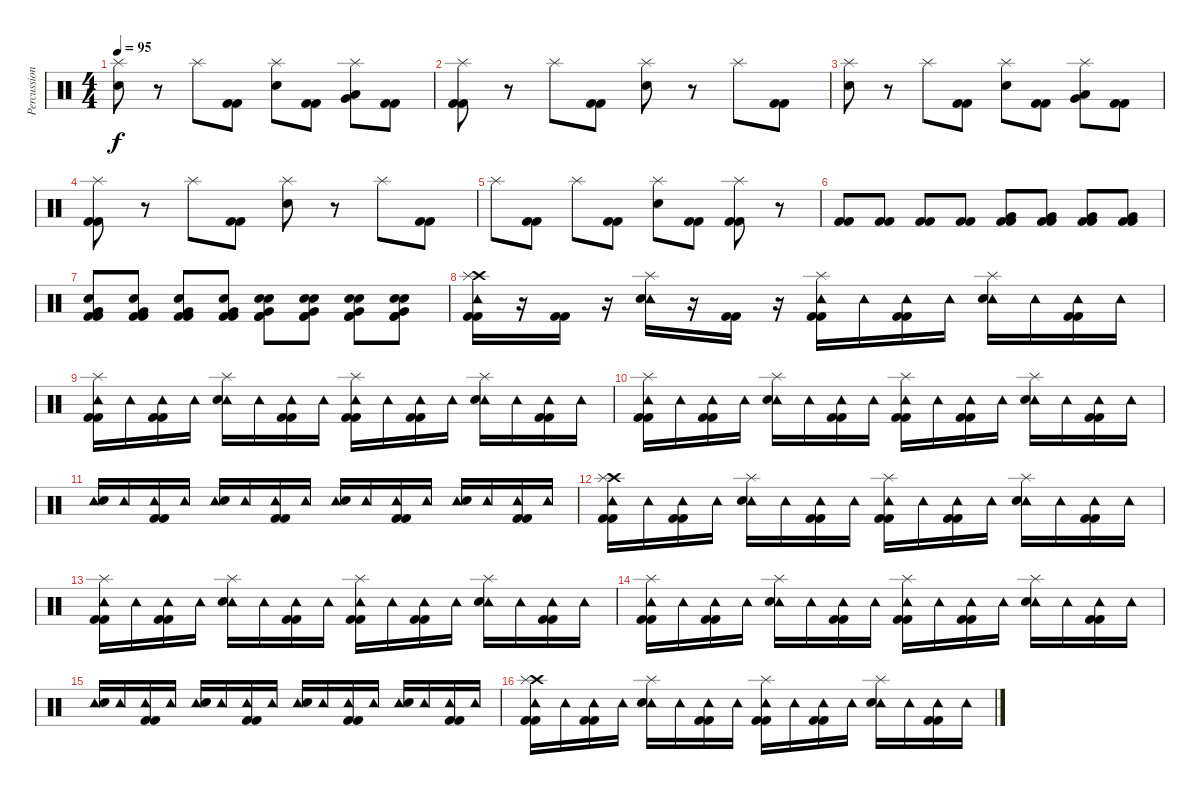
\track ("Percussion" "Percussion") {instrument percussion}
\staff {score}
\articulation defaults
\ts (4 4)
\tempo 95
\clef neutral
\ks c
("Splash (hit)" "Electric Snare (hit)").8{dy f} r.8 "Splash (hit)".8 ("Kick (hit) 2" "Kick (hit) 2").8 ("Splash (hit)" "Electric Snare (hit)").8 ("Kick (hit) 2" "Kick (hit) 2").8 ("Splash (hit)" "Very Low Tom (hit)" "Low Tom (hit)").8 ("Kick (hit) 2" "Kick (hit) 2").8 |
("Splash (hit)" "Kick (hit) 2" "Kick (hit) 2").8 r.8 "Splash (hit)".8 ("Kick (hit) 2" "Kick (hit) 2").8 ("Splash (hit)" "Electric Snare (hit)").8 r.8 "Splash (hit)".8 ("Kick (hit) 2" "Kick (hit) 2").8 |
("Splash (hit)" "Electric Snare (hit)").8 r.8 "Splash (hit)".8 ("Kick (hit) 2" "Kick (hit) 2").8 ("Splash (hit)" "Electric Snare (hit)").8 ("Kick (hit) 2" "Kick (hit) 2").8 ("Splash (hit)" "Very Low Tom (hit)" "Low Tom (hit)").8 ("Kick (hit) 2" "Kick (hit) 2").8 |
("Splash (hit)" "Kick (hit) 2" "Kick (hit) 2").8 r.8 "Splash (hit)".8 ("Kick (hit) 2" "Kick (hit) 2").8 ("Splash (hit)" "Electric Snare (hit)").8 r.8 "Splash (hit)".8 ("Kick (hit) 2" "Kick (hit) 2").8 |
"Splash (hit)".8 ("Kick (hit) 2" "Kick (hit) 2").8 "Splash (hit)".8 ("Kick (hit) 2" "Kick (hit) 2").8 ("Splash (hit)" "Electric Snare (hit)").8 ("Kick (hit) 2" "Kick (hit) 2").8 ("Splash (hit)" "Kick (hit) 2" "Kick (hit) 2").8 r.8 |
("Kick (hit) 2" "Kick (hit) 2").8 ("Kick (hit) 2" "Kick (hit) 2").8 ("Kick (hit) 2" "Kick (hit) 2").8 ("Kick (hit) 2" "Kick (hit) 2").8 ("Kick (hit) 2" "Kick (hit) 2" "Very Low Tom (hit)").8 ("Kick (hit) 2" "Kick (hit) 2" "Very Low Tom (hit)").8 ("Kick (hit) 2" "Kick (hit) 2" "Very Low Tom (hit)").8 ("Kick (hit) 2" "Kick (hit) 2" "Very Low Tom (hit)").8 |
("Electric Snare (hit)" "Kick (hit) 2" "Kick (hit) 2" "Very Low Tom (hit)").8 ("Electric Snare (hit)" "Kick (hit) 2" "Kick (hit) 2" "Very Low Tom (hit)").8 ("Electric Snare (hit)" "Kick (hit) 2" "Kick (hit) 2" "Very Low Tom (hit)").8 ("Electric Snare (hit)" "Kick (hit) 2" "Kick (hit) 2" "Very Low Tom (hit)").8 ("Snare (hit) 2" "Electric Snare (hit)" "Kick (hit) 2" "Kick (hit) 2" "Very Low Tom (hit)").8 ("Snare (hit) 2" "Electric Snare (hit)" "Kick (hit) 2" "Kick (hit) 2" "Very Low Tom (hit)").8 ("Snare (hit) 2" "Electric Snare (hit)" "Kick (hit) 2" "Kick (hit) 2" "Very Low Tom (hit)").8 ("Snare (hit) 2" "Electric Snare (hit)" "Kick (hit) 2" "Kick (hit) 2" "Very Low Tom (hit)").8 |
("Tambourine (hit)" "Crash high (hit)" "Kick (hit) 2" "Kick (hit) 2" "Splash (hit)").16 r.16 ("Kick (hit) 2" "Kick (hit) 2").16 r.16 ("Tambourine (hit)" "Electric Snare (hit)" "Splash (hit)").16 r.16 ("Kick (hit) 2" "Kick (hit) 2").16 r.16 ("Tambourine (hit)" "Kick (hit) 2" "Kick (hit) 2" "Splash (hit)").16 "Tambourine (hit)".16 ("Tambourine (hit)" "Kick (hit) 2" "Kick (hit) 2").16 "Tambourine (hit)".16 ("Tambourine (hit)" "Electric Snare (hit)" "Splash (hit)").16 "Tambourine (hit)".16 ("Tambourine (hit)" "Kick (hit) 2" "Kick (hit) 2").16 "Tambourine (hit)".16 |
("Tambourine (hit)" "Kick (hit) 2" "Kick (hit) 2" "Splash (hit)").16 "Tambourine (hit)".16 ("Tambourine (hit)" "Kick (hit) 2" "Kick (hit) 2").16 "Tambourine (hit)".16 ("Tambourine (hit)" "Electric Snare (hit)" "Splash (hit)").16 "Tambourine (hit)".16 ("Tambourine (hit)" "Kick (hit) 2" "Kick (hit) 2").16 "Tambourine (hit)".16 ("Tambourine (hit)" "Kick (hit) 2" "Kick (hit) 2" "Splash (hit)").16 "Tambourine (hit)".16 ("Tambourine (hit)" "Kick (hit) 2" "Kick (hit) 2").16 "Tambourine (hit)".16 ("Tambourine (hit)" "Electric Snare (hit)" "Splash (hit)").16 "Tambourine (hit)".16 ("Tambourine (hit)" "Kick (hit) 2" "Kick (hit) 2").16 "Tambourine (hit)".16 |
("Tambourine (hit)" "Kick (hit) 2" "Kick (hit) 2" "Splash (hit)").16 "Tambourine (hit)".16 ("Tambourine (hit)" "Kick (hit) 2" "Kick (hit) 2").16 "Tambourine (hit)".16 ("Tambourine (hit)" "Electric Snare (hit)" "Splash (hit)").16 "Tambourine (hit)".16 ("Tambourine (hit)" "Kick (hit) 2" "Kick (hit) 2").16 "Tambourine (hit)".16 ("Tambourine (hit)" "Kick (hit) 2" "Kick (hit) 2" "Splash (hit)").16 "Tambourine (hit)".16 ("Tambourine (hit)" "Kick (hit) 2" "Kick (hit) 2").16 "Tambourine (hit)".16 ("Tambourine (hit)" "Electric Snare (hit)" "Splash (hit)").16 "Tambourine (hit)".16 ("Tambourine (hit)" "Kick (hit) 2" "Kick (hit) 2").16 "Tambourine (hit)".16 |
("Tambourine (hit)" "Electric Snare (hit)").16 "Tambourine (hit)".16 ("Tambourine (hit)" "Kick (hit) 2" "Kick (hit) 2").16 "Tambourine (hit)".16 ("Tambourine (hit)" "Electric Snare (hit)").16 "Tambourine (hit)".16 ("Tambourine (hit)" "Kick (hit) 2" "Kick (hit) 2").16 "Tambourine (hit)".16 ("Tambourine (hit)" "Electric Snare (hit)").16 "Tambourine (hit)".16 ("Tambourine (hit)" "Kick (hit) 2" "Kick (hit) 2").16 "Tambourine (hit)".16 ("Tambourine (hit)" "Electric Snare (hit)").16 "Tambourine (hit)".16 ("Tambourine (hit)" "Kick (hit) 2" "Kick (hit) 2").16 "Tambourine (hit)".16 |
("Tambourine (hit)" "Crash high (hit)" "Kick (hit) 2" "Kick (hit) 2" "Splash (hit)").16 "Tambourine (hit)".16 ("Tambourine (hit)" "Kick (hit) 2" "Kick (hit) 2").16 "Tambourine (hit)".16 ("Tambourine (hit)" "Electric Snare (hit)" "Splash (hit)").16 "Tambourine (hit)".16 ("Tambourine (hit)" "Kick (hit) 2" "Kick (hit) 2").16 "Tambourine (hit)".16 ("Tambourine (hit)" "Kick (hit) 2" "Kick (hit) 2" "Splash (hit)").16 "Tambourine (hit)".16 ("Tambourine (hit)" "Kick (hit) 2" "Kick (hit) 2").16 "Tambourine (hit)".16 ("Tambourine (hit)" "Electric Snare (hit)" "Splash (hit)").16 "Tambourine (hit)".16 ("Tambourine (hit)" "Kick (hit) 2" "Kick (hit) 2").16 "Tambourine (hit)".16 |
("Tambourine (hit)" "Kick (hit) 2" "Kick (hit) 2" "Splash (hit)").16 "Tambourine (hit)".16 ("Tambourine (hit)" "Kick (hit) 2" "Kick (hit) 2").16 "Tambourine (hit)".16 ("Tambourine (hit)" "Electric Snare (hit)" "Splash (hit)").16 "Tambourine (hit)".16 ("Tambourine (hit)" "Kick (hit) 2" "Kick (hit) 2").16 "Tambourine (hit)".16 ("Tambourine (hit)" "Kick (hit) 2" "Kick (hit) 2" "Splash (hit)").16 "Tambourine (hit)".16 ("Tambourine (hit)" "Kick (hit) 2" "Kick (hit) 2").16 "Tambourine (hit)".16 ("Tambourine (hit)" "Electric Snare (hit)" "Splash (hit)").16 "Tambourine (hit)".16 ("Tambourine (hit)" "Kick (hit) 2" "Kick (hit) 2").16 "Tambourine (hit)".16 |
("Tambourine (hit)" "Kick (hit) 2" "Kick (hit) 2" "Splash (hit)").16 "Tambourine (hit)".16 ("Tambourine (hit)" "Kick (hit) 2" "Kick (hit) 2").16 "Tambourine (hit)".16 ("Tambourine (hit)" "Electric Snare (hit)" "Splash (hit)").16 "Tambourine (hit)".16 ("Tambourine (hit)" "Kick (hit) 2" "Kick (hit) 2").16 "Tambourine (hit)".16 ("Tambourine (hit)" "Kick (hit) 2" "Kick (hit) 2" "Splash (hit)").16 "Tambourine (hit)".16 ("Tambourine (hit)" "Kick (hit) 2" "Kick (hit) 2").16 "Tambourine (hit)".16 ("Tambourine (hit)" "Electric Snare (hit)" "Splash (hit)").16 "Tambourine (hit)".16 ("Tambourine (hit)" "Kick (hit) 2" "Kick (hit) 2").16 "Tambourine (hit)".16 |
("Tambourine (hit)" "Electric Snare (hit)").16 "Tambourine (hit)".16 ("Tambourine (hit)" "Kick (hit) 2" "Kick (hit) 2").16 "Tambourine (hit)".16 ("Tambourine (hit)" "Electric Snare (hit)").16 "Tambourine (hit)".16 ("Tambourine (hit)" "Kick (hit) 2" "Kick (hit) 2").16 "Tambourine (hit)".16 ("Tambourine (hit)" "Electric Snare (hit)").16 "Tambourine (hit)".16 ("Tambourine (hit)" "Kick (hit) 2" "Kick (hit) 2").16 "Tambourine (hit)".16 ("Tambourine (hit)" "Electric Snare (hit)").16 "Tambourine (hit)".16 ("Tambourine (hit)" "Kick (hit) 2" "Kick (hit) 2").16 "Tambourine (hit)".16 |
("Tambourine (hit)" "Crash high (hit)" "Kick (hit) 2" "Kick (hit) 2" "Splash (hit)").16 "Tambourine (hit)".16 ("Tambourine (hit)" "Kick (hit) 2" "Kick (hit) 2").16 "Tambourine (hit)".16 ("Tambourine (hit)" "Electric Snare (hit)" "Splash (hit)").16 "Tambourine (hit)".16 ("Tambourine (hit)" "Kick (hit) 2" "Kick (hit) 2").16 "Tambourine (hit)".16 ("Tambourine (hit)" "Kick (hit) 2" "Kick (hit) 2" "Splash (hit)").16 "Tambourine (hit)".16 ("Tambourine (hit)" "Kick (hit) 2" "Kick (hit) 2").16 "Tambourine (hit)".16 ("Tambourine (hit)" "Electric Snare (hit)" "Splash (hit)").16 "Tambourine (hit)".16 ("Tambourine (hit)" "Kick (hit) 2" "Kick (hit) 2").16 "Tambourine (hit)".16
